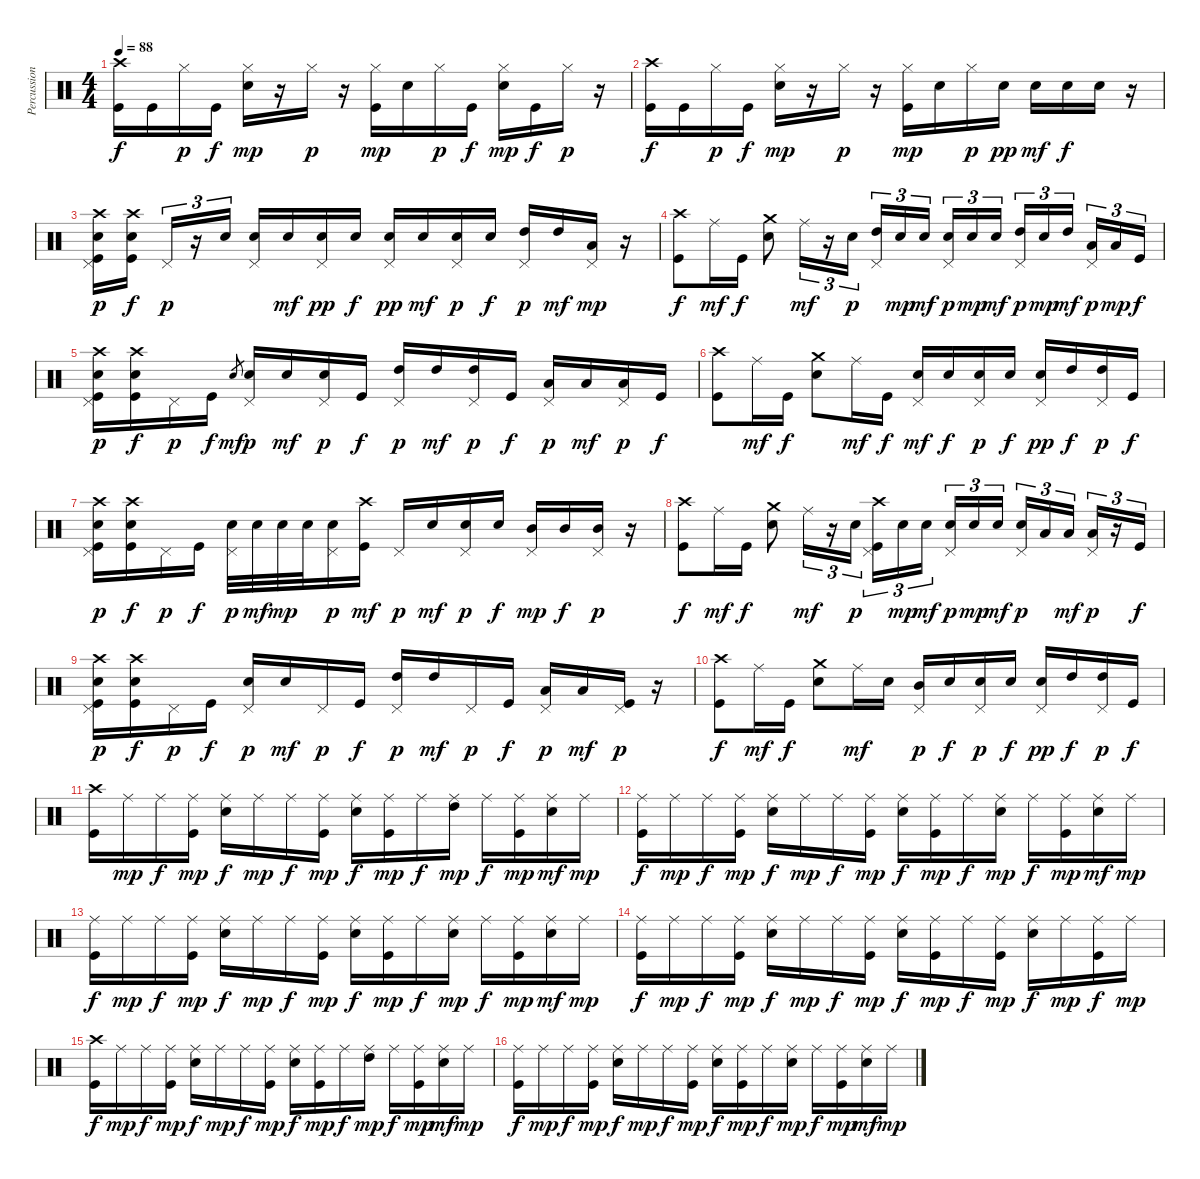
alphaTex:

\track ("Percussion" "Percussion") {instrument percussion}
\staff {score}
\articulation defaults
\ts (4 4)
\tempo 88
\clef neutral
\ks c
("Crash high (hit)" "Kick (hit)").16{dy f} "Kick (hit)".16 "Hi-Hat (closed)".16{dy p} "Kick (hit)".16{dy f} ("Hi-Hat (closed)" "Snare (hit) 2").16{dy mp} r.16 "Hi-Hat (closed)".16{dy p} r.16 ("Hi-Hat (closed)" "Kick (hit)").16{dy mp} "Snare (hit) 2".16 "Hi-Hat (closed)".16{dy p} "Kick (hit)".16{dy f} ("Hi-Hat (closed)" "Snare (hit) 2").16{dy mp} "Kick (hit)".16{dy f} "Hi-Hat (closed)".16{dy p} r.16 |
("Crash high (hit)" "Kick (hit)").16{dy f} "Kick (hit)".16 "Hi-Hat (closed)".16{dy p} "Kick (hit)".16{dy f} ("Hi-Hat (closed)" "Snare (hit) 2").16{dy mp} r.16 "Hi-Hat (closed)".16{dy p} r.16 ("Hi-Hat (closed)" "Kick (hit)").16{dy mp} "Snare (hit) 2".16 "Hi-Hat (closed)".16{dy p} "Snare (hit) 2".16{dy pp} "Snare (hit) 2".16{dy mf} "Snare (hit) 2".16{dy f} "Snare (hit) 2".16 r.16 |
("Crash high (hit)" "Pedal Hi-Hat (hit)" "Snare (hit) 2" "Kick (hit)").16{dy p} ("Crash high (hit)" "Snare (hit) 2" "Kick (hit)").16{dy f} "Pedal Hi-Hat (hit)".16{tu (3 2) dy p} r.16{tu (3 2)} "Snare (hit) 2".16{tu (3 2)} ("Pedal Hi-Hat (hit)" "Snare (hit) 2").16 "Snare (hit) 2".16{dy mf} ("Pedal Hi-Hat (hit)" "Snare (hit) 2").16{dy pp} "Snare (hit) 2".16{dy f} ("Pedal Hi-Hat (hit)" "Snare (hit) 2").16{dy pp} "Snare (hit) 2".16{dy mf} ("Pedal Hi-Hat (hit)" "Snare (hit) 2").16{dy p} "Snare (hit) 2".16{dy f} ("Pedal Hi-Hat (hit)" "High Tom (hit)").16{dy p} "High Tom (hit)".16{dy mf} ("Pedal Hi-Hat (hit)" "Low Tom (hit)").16{dy mp} r.16 |
("Crash high (hit)" "Kick (hit)").8{dy f} "Ride (middle)".16{dy mf} "Kick (hit)".16{dy f} ("Crash medium (hit)" "Snare (hit) 2").8 "Ride (middle)".16{tu (3 2) dy mf} r.16{tu (3 2)} "Snare (hit) 2".16{tu (3 2) dy p} ("Pedal Hi-Hat (hit)" "High Tom (hit)").16{tu (3 2)} "Snare (hit) 2".16{tu (3 2) dy mp} "Snare (hit) 2".16{tu (3 2) dy mf} ("Pedal Hi-Hat (hit)" "Snare (hit) 2").16{tu (3 2) dy p} "Snare (hit) 2".16{tu (3 2) dy mp} "Snare (hit) 2".16{tu (3 2) dy mf} ("Pedal Hi-Hat (hit)" "High Tom (hit)").16{tu (3 2) dy p} "Snare (hit) 2".16{tu (3 2) dy mp} "High Tom (hit)".16{tu (3 2) dy mf} ("Pedal Hi-Hat (hit)" "Low Tom (hit)").16{tu (3 2) dy p} "Low Tom (hit)".16{tu (3 2) dy mp} "Kick (hit)".16{tu (3 2) dy f} |
("Crash high (hit)" "Pedal Hi-Hat (hit)" "Snare (hit) 2" "Kick (hit)").16{dy p} ("Crash high (hit)" "Snare (hit) 2" "Kick (hit)").16{dy f} "Pedal Hi-Hat (hit)".16{dy p} "Kick (hit)".16{dy f} "Snare (hit) 2".8{gr dy mf} ("Pedal Hi-Hat (hit)" "Snare (hit) 2").16{dy p} "Snare (hit) 2".16{dy mf} ("Pedal Hi-Hat (hit)" "Snare (hit) 2").16{dy p} "Kick (hit)".16{dy f} ("Pedal Hi-Hat (hit)" "High Tom (hit)").16{dy p} "High Tom (hit)".16{dy mf} ("Pedal Hi-Hat (hit)" "High Tom (hit)").16{dy p} "Kick (hit)".16{dy f} ("Pedal Hi-Hat (hit)" "Low Tom (hit)").16{dy p} "Low Tom (hit)".16{dy mf} ("Pedal Hi-Hat (hit)" "Low Tom (hit)").16{dy p} "Kick (hit)".16{dy f} |
("Crash high (hit)" "Kick (hit)").8 "Ride (middle)".16{dy mf} "Kick (hit)".16{dy f} ("Crash medium (hit)" "Snare (hit) 2").8 "Ride (middle)".16{dy mf} "Kick (hit)".16{dy f} ("Pedal Hi-Hat (hit)" "Snare (hit) 2").16{dy mf} "Snare (hit) 2".16{dy f} ("Pedal Hi-Hat (hit)" "Snare (hit) 2").16{dy p} "Snare (hit) 2".16{dy f} ("Pedal Hi-Hat (hit)" "Snare (hit) 2").16{dy pp} "High Tom (hit)".16{dy f} ("Pedal Hi-Hat (hit)" "High Tom (hit)").16{dy p} "Kick (hit)".16{dy f} |
("Crash high (hit)" "Pedal Hi-Hat (hit)" "Snare (hit) 2" "Kick (hit)").16{dy p} ("Crash high (hit)" "Snare (hit) 2" "Kick (hit)").16{dy f} "Pedal Hi-Hat (hit)".16{dy p} "Kick (hit)".16{dy f} ("Pedal Hi-Hat (hit)" "Snare (hit) 2").32{dy p} "Snare (hit) 2".32{dy mf} "Snare (hit) 2".32{dy mp} "Snare (hit) 2".32 ("Pedal Hi-Hat (hit)" "Snare (hit) 2").16{dy p} ("Crash high (hit)" "Kick (hit)").16{dy mf} "Pedal Hi-Hat (hit)".16{dy p} "Snare (hit) 2".16{dy mf} ("Pedal Hi-Hat (hit)" "Snare (hit) 2").16{dy p} "Snare (hit) 2".16{dy f} ("Pedal Hi-Hat (hit)" "Mid Tom (hit)").16{dy mp} "Mid Tom (hit)".16{dy f} ("Pedal Hi-Hat (hit)" "Mid Tom (hit)").16{dy p} r.16 |
("Crash high (hit)" "Kick (hit)").8{dy f} "Ride (middle)".16{dy mf} "Kick (hit)".16{dy f} ("Crash medium (hit)" "Snare (hit) 2").8 "Ride (middle)".16{tu (3 2) dy mf} r.16{tu (3 2)} "Snare (hit) 2".16{tu (3 2) dy p} ("Crash high (hit)" "Pedal Hi-Hat (hit)" "Kick (hit)").16{tu (3 2)} "Snare (hit) 2".16{tu (3 2) dy mp} "Snare (hit) 2".16{tu (3 2) dy mf} ("Pedal Hi-Hat (hit)" "Snare (hit) 2").16{tu (3 2) dy p} "Snare (hit) 2".16{tu (3 2) dy mp} "Snare (hit) 2".16{tu (3 2) dy mf} ("Pedal Hi-Hat (hit)" "Snare (hit) 2").16{tu (3 2) dy p} "Low Tom (hit)".16{tu (3 2)} "Low Tom (hit)".16{tu (3 2) dy mf} ("Pedal Hi-Hat (hit)" "Low Tom (hit)").16{tu (3 2) dy p} r.16{tu (3 2)} "Kick (hit)".16{tu (3 2) dy f} |
("Crash high (hit)" "Pedal Hi-Hat (hit)" "Snare (hit) 2" "Kick (hit)").16{dy p} ("Crash high (hit)" "Snare (hit) 2" "Kick (hit)").16{dy f} "Pedal Hi-Hat (hit)".16{dy p} "Kick (hit)".16{dy f} ("Pedal Hi-Hat (hit)" "Snare (hit) 2").16{dy p} "Snare (hit) 2".16{dy mf} "Pedal Hi-Hat (hit)".16{dy p} "Kick (hit)".16{dy f} ("Pedal Hi-Hat (hit)" "High Tom (hit)").16{dy p} "High Tom (hit)".16{dy mf} "Pedal Hi-Hat (hit)".16{dy p} "Kick (hit)".16{dy f} ("Pedal Hi-Hat (hit)" "Low Tom (hit)").16{dy p} "Low Tom (hit)".16{dy mf} ("Pedal Hi-Hat (hit)" "Kick (hit)").16{dy p} r.16 |
("Crash high (hit)" "Kick (hit)").8{dy f} "Ride (middle)".16{dy mf} "Kick (hit)".16{dy f} ("Crash medium (hit)" "Snare (hit) 2").8 "Ride (middle)".16{dy mf} "Snare (hit) 2".16 ("Pedal Hi-Hat (hit)" "Mid Tom (hit)").16{dy p} "Snare (hit) 2".16{dy f} ("Pedal Hi-Hat (hit)" "Snare (hit) 2").16{dy p} "Snare (hit) 2".16{dy f} ("Pedal Hi-Hat (hit)" "Snare (hit) 2").16{dy pp} "High Tom (hit)".16{dy f} ("Pedal Hi-Hat (hit)" "High Tom (hit)").16{dy p} "Kick (hit)".16{dy f} |
("Crash high (hit)" "Kick (hit)").16 "Ride (middle)".16{dy mp} "Ride (middle)".16{dy f} ("Ride (middle)" "Kick (hit)").16{dy mp} ("Ride (middle)" "Snare (hit) 2").16{dy f} "Ride (middle)".16{dy mp} "Ride (middle)".16{dy f} ("Ride (middle)" "Kick (hit)").16{dy mp} ("Ride (middle)" "Snare (hit) 2").16{dy f} ("Ride (middle)" "Kick (hit)").16{dy mp} "Ride (middle)".16{dy f} ("Ride (middle)" "High Tom (hit)").16{dy mp} "Ride (middle)".16{dy f} ("Ride (middle)" "Kick (hit)").16{dy mp} ("Ride (middle)" "Snare (hit) 2").16{dy mf} "Ride (middle)".16{dy mp} |
("Ride (middle)" "Kick (hit)").16{dy f} "Ride (middle)".16{dy mp} "Ride (middle)".16{dy f} ("Ride (middle)" "Kick (hit)").16{dy mp} ("Ride (middle)" "Snare (hit) 2").16{dy f} "Ride (middle)".16{dy mp} "Ride (middle)".16{dy f} ("Ride (middle)" "Kick (hit)").16{dy mp} ("Ride (middle)" "Snare (hit) 2").16{dy f} ("Ride (middle)" "Kick (hit)").16{dy mp} "Ride (middle)".16{dy f} ("Ride (middle)" "Snare (hit) 2").16{dy mp} "Ride (middle)".16{dy f} ("Ride (middle)" "Kick (hit)").16{dy mp} ("Ride (middle)" "Snare (hit) 2").16{dy mf} "Ride (middle)".16{dy mp} |
("Ride (middle)" "Kick (hit)").16{dy f} "Ride (middle)".16{dy mp} "Ride (middle)".16{dy f} ("Ride (middle)" "Kick (hit)").16{dy mp} ("Ride (middle)" "Snare (hit) 2").16{dy f} "Ride (middle)".16{dy mp} "Ride (middle)".16{dy f} ("Ride (middle)" "Kick (hit)").16{dy mp} ("Ride (middle)" "Snare (hit) 2").16{dy f} ("Ride (middle)" "Kick (hit)").16{dy mp} "Ride (middle)".16{dy f} ("Ride (middle)" "Snare (hit) 2").16{dy mp} "Ride (middle)".16{dy f} ("Ride (middle)" "Kick (hit)").16{dy mp} ("Ride (middle)" "Snare (hit) 2").16{dy mf} "Ride (middle)".16{dy mp} |
("Ride (middle)" "Kick (hit)").16{dy f} "Ride (middle)".16{dy mp} "Ride (middle)".16{dy f} ("Ride (middle)" "Kick (hit)").16{dy mp} ("Ride (middle)" "Snare (hit) 2").16{dy f} "Ride (middle)".16{dy mp} "Ride (middle)".16{dy f} ("Ride (middle)" "Kick (hit)").16{dy mp} ("Ride (middle)" "Snare (hit) 2").16{dy f} ("Ride (middle)" "Kick (hit)").16{dy mp} "Ride (middle)".16{dy f} ("Ride (middle)" "Kick (hit)").16{dy mp} ("Ride (middle)" "Snare (hit) 2").16{dy f} "Ride (middle)".16{dy mp} ("Ride (middle)" "Kick (hit)").16{dy f} "Ride (middle)".16{dy mp} |
("Crash high (hit)" "Kick (hit)").16{dy f} "Ride (middle)".16{dy mp} "Ride (middle)".16{dy f} ("Ride (middle)" "Kick (hit)").16{dy mp} ("Ride (middle)" "Snare (hit) 2").16{dy f} "Ride (middle)".16{dy mp} "Ride (middle)".16{dy f} ("Ride (middle)" "Kick (hit)").16{dy mp} ("Ride (middle)" "Snare (hit) 2").16{dy f} ("Ride (middle)" "Kick (hit)").16{dy mp} "Ride (middle)".16{dy f} ("Ride (middle)" "High Tom (hit)").16{dy mp} "Ride (middle)".16{dy f} ("Ride (middle)" "Kick (hit)").16{dy mp} ("Ride (middle)" "Snare (hit) 2").16{dy mf} "Ride (middle)".16{dy mp} |
("Ride (middle)" "Kick (hit)").16{dy f} "Ride (middle)".16{dy mp} "Ride (middle)".16{dy f} ("Ride (middle)" "Kick (hit)").16{dy mp} ("Ride (middle)" "Snare (hit) 2").16{dy f} "Ride (middle)".16{dy mp} "Ride (middle)".16{dy f} ("Ride (middle)" "Kick (hit)").16{dy mp} ("Ride (middle)" "Snare (hit) 2").16{dy f} ("Ride (middle)" "Kick (hit)").16{dy mp} "Ride (middle)".16{dy f} ("Ride (middle)" "Snare (hit) 2").16{dy mp} "Ride (middle)".16{dy f} ("Ride (middle)" "Kick (hit)").16{dy mp} ("Ride (middle)" "Snare (hit) 2").16{dy mf} "Ride (middle)".16{dy mp}
